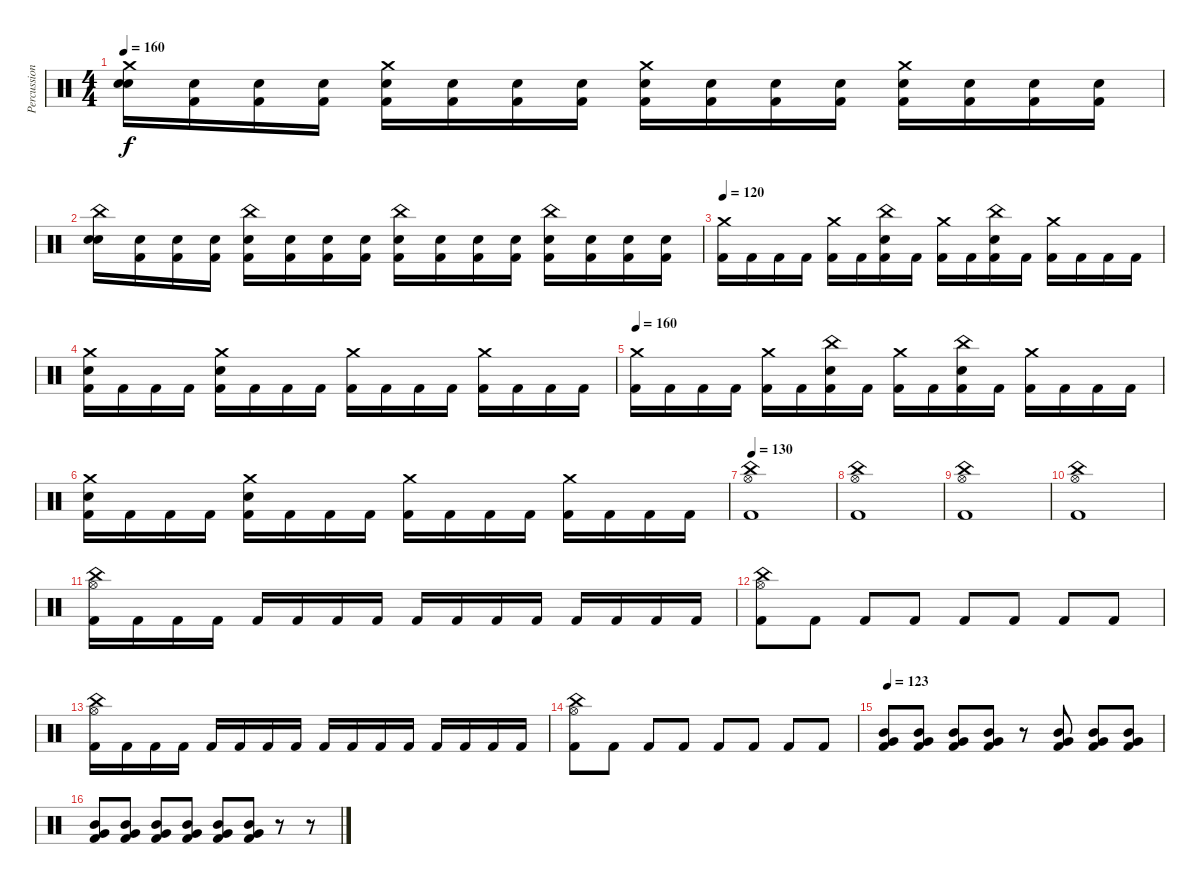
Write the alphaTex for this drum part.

\track ("Percussion" "Percussion") {instrument percussion}
\staff {score}
\articulation defaults
\ts (4 4)
\tempo 160
\clef neutral
\ks c
("Crash medium (hit)" "Snare (hit) 2" "Snare (hit) 2").16{dy f} ("Snare (hit) 2" "Kick (hit) 2").16 ("Snare (hit) 2" "Kick (hit) 2").16 ("Snare (hit) 2" "Kick (hit) 2").16 ("Crash medium (hit)" "Snare (hit) 2" "Kick (hit) 2").16 ("Snare (hit) 2" "Kick (hit) 2").16 ("Snare (hit) 2" "Kick (hit) 2").16 ("Snare (hit) 2" "Kick (hit) 2").16 ("Crash medium (hit)" "Snare (hit) 2" "Kick (hit) 2").16 ("Snare (hit) 2" "Kick (hit) 2").16 ("Snare (hit) 2" "Kick (hit) 2").16 ("Snare (hit) 2" "Kick (hit) 2").16 ("Crash medium (hit)" "Snare (hit) 2" "Kick (hit) 2").16 ("Snare (hit) 2" "Kick (hit) 2").16 ("Snare (hit) 2" "Kick (hit) 2").16 ("Snare (hit) 2" "Kick (hit) 2").16 |
("China (hit)" "Snare (hit) 2" "Snare (hit) 2").16 ("Snare (hit) 2" "Kick (hit) 2").16 ("Snare (hit) 2" "Kick (hit) 2").16 ("Snare (hit) 2" "Kick (hit) 2").16 ("China (hit)" "Snare (hit) 2" "Kick (hit) 2").16 ("Snare (hit) 2" "Kick (hit) 2").16 ("Snare (hit) 2" "Kick (hit) 2").16 ("Snare (hit) 2" "Kick (hit) 2").16 ("China (hit)" "Snare (hit) 2" "Kick (hit) 2").16 ("Snare (hit) 2" "Kick (hit) 2").16 ("Snare (hit) 2" "Kick (hit) 2").16 ("Snare (hit) 2" "Kick (hit) 2").16 ("China (hit)" "Snare (hit) 2" "Kick (hit) 2").16 ("Snare (hit) 2" "Kick (hit) 2").16 ("Snare (hit) 2" "Kick (hit) 2").16 ("Snare (hit) 2" "Kick (hit) 2").16 |
\tempo 160
\tempo 120
("Crash medium (hit)" "Kick (hit) 2").16 "Kick (hit) 2".16 "Kick (hit) 2".16 "Kick (hit) 2".16 ("Crash medium (hit)" "Kick (hit) 2").16 "Kick (hit) 2".16 ("China (hit)" "Snare (hit) 2" "Kick (hit) 2").16 "Kick (hit) 2".16 ("Crash medium (hit)" "Kick (hit) 2").16 "Kick (hit) 2".16 ("China (hit)" "Snare (hit) 2" "Kick (hit) 2").16 "Kick (hit) 2".16 ("Crash medium (hit)" "Kick (hit) 2").16 "Kick (hit) 2".16 "Kick (hit) 2".16 "Kick (hit) 2".16 |
("Crash medium (hit)" "Snare (hit) 2" "Kick (hit) 2").16 "Kick (hit) 2".16 "Kick (hit) 2".16 "Kick (hit) 2".16 ("Crash medium (hit)" "Snare (hit) 2" "Kick (hit) 2").16 "Kick (hit) 2".16 "Kick (hit) 2".16 "Kick (hit) 2".16 ("Crash medium (hit)" "Kick (hit) 2").16 "Kick (hit) 2".16 "Kick (hit) 2".16 "Kick (hit) 2".16 ("Crash medium (hit)" "Kick (hit) 2").16 "Kick (hit) 2".16 "Kick (hit) 2".16 "Kick (hit) 2".16 |
\tempo 160
("Crash medium (hit)" "Kick (hit) 2").16 "Kick (hit) 2".16 "Kick (hit) 2".16 "Kick (hit) 2".16 ("Crash medium (hit)" "Kick (hit) 2").16 "Kick (hit) 2".16 ("China (hit)" "Snare (hit) 2" "Kick (hit) 2").16 "Kick (hit) 2".16 ("Crash medium (hit)" "Kick (hit) 2").16 "Kick (hit) 2".16 ("China (hit)" "Snare (hit) 2" "Kick (hit) 2").16 "Kick (hit) 2".16 ("Crash medium (hit)" "Kick (hit) 2").16 "Kick (hit) 2".16 "Kick (hit) 2".16 "Kick (hit) 2".16 |
("Crash medium (hit)" "Snare (hit) 2" "Kick (hit) 2").16 "Kick (hit) 2".16 "Kick (hit) 2".16 "Kick (hit) 2".16 ("Crash medium (hit)" "Snare (hit) 2" "Kick (hit) 2").16 "Kick (hit) 2".16 "Kick (hit) 2".16 "Kick (hit) 2".16 ("Crash medium (hit)" "Kick (hit) 2").16 "Kick (hit) 2".16 "Kick (hit) 2".16 "Kick (hit) 2".16 ("Crash medium (hit)" "Kick (hit) 2").16 "Kick (hit) 2".16 "Kick (hit) 2".16 "Kick (hit) 2".16 |
\tempo 130
("China (hit)" "Hi-Hat (open)" "Kick (hit) 2").1 |
("China (hit)" "Hi-Hat (open)" "Kick (hit) 2").1 |
("China (hit)" "Hi-Hat (open)" "Kick (hit) 2").1 |
("China (hit)" "Hi-Hat (open)" "Kick (hit) 2").1 |
("China (hit)" "Hi-Hat (open)" "Kick (hit) 2").16 "Kick (hit) 2".16 "Kick (hit) 2".16 "Kick (hit) 2".16 "Kick (hit) 2".16 "Kick (hit) 2".16 "Kick (hit) 2".16 "Kick (hit) 2".16 "Kick (hit) 2".16 "Kick (hit) 2".16 "Kick (hit) 2".16 "Kick (hit) 2".16 "Kick (hit) 2".16 "Kick (hit) 2".16 "Kick (hit) 2".16 "Kick (hit) 2".16 |
("China (hit)" "Hi-Hat (open)" "Kick (hit) 2").8 "Kick (hit) 2".8 "Kick (hit) 2".8 "Kick (hit) 2".8 "Kick (hit) 2".8 "Kick (hit) 2".8 "Kick (hit) 2".8 "Kick (hit) 2".8 |
("China (hit)" "Hi-Hat (open)" "Kick (hit) 2").16 "Kick (hit) 2".16 "Kick (hit) 2".16 "Kick (hit) 2".16 "Kick (hit) 2".16 "Kick (hit) 2".16 "Kick (hit) 2".16 "Kick (hit) 2".16 "Kick (hit) 2".16 "Kick (hit) 2".16 "Kick (hit) 2".16 "Kick (hit) 2".16 "Kick (hit) 2".16 "Kick (hit) 2".16 "Kick (hit) 2".16 "Kick (hit) 2".16 |
("China (hit)" "Hi-Hat (open)" "Kick (hit) 2").8 "Kick (hit) 2".8 "Kick (hit) 2".8 "Kick (hit) 2".8 "Kick (hit) 2".8 "Kick (hit) 2".8 "Kick (hit) 2".8 "Kick (hit) 2".8 |
\tempo 123
("Very Low Tom (hit)" "Mid Tom (hit)" "Kick (hit) 2").8 ("Very Low Tom (hit)" "Mid Tom (hit)" "Kick (hit) 2").8 ("Very Low Tom (hit)" "Mid Tom (hit)" "Kick (hit) 2").8 ("Very Low Tom (hit)" "Mid Tom (hit)" "Kick (hit) 2").8 r.8 ("Very Low Tom (hit)" "Mid Tom (hit)" "Kick (hit) 2").8 ("Very Low Tom (hit)" "Mid Tom (hit)" "Kick (hit) 2").8 ("Very Low Tom (hit)" "Mid Tom (hit)" "Kick (hit) 2").8 |
("Very Low Tom (hit)" "Mid Tom (hit)" "Kick (hit) 2").8 ("Very Low Tom (hit)" "Mid Tom (hit)" "Kick (hit) 2").8 ("Very Low Tom (hit)" "Mid Tom (hit)" "Kick (hit) 2").8 ("Very Low Tom (hit)" "Mid Tom (hit)" "Kick (hit) 2").8 ("Very Low Tom (hit)" "Mid Tom (hit)" "Kick (hit) 2").8 ("Very Low Tom (hit)" "Mid Tom (hit)" "Kick (hit) 2").8 r.8 r.8
